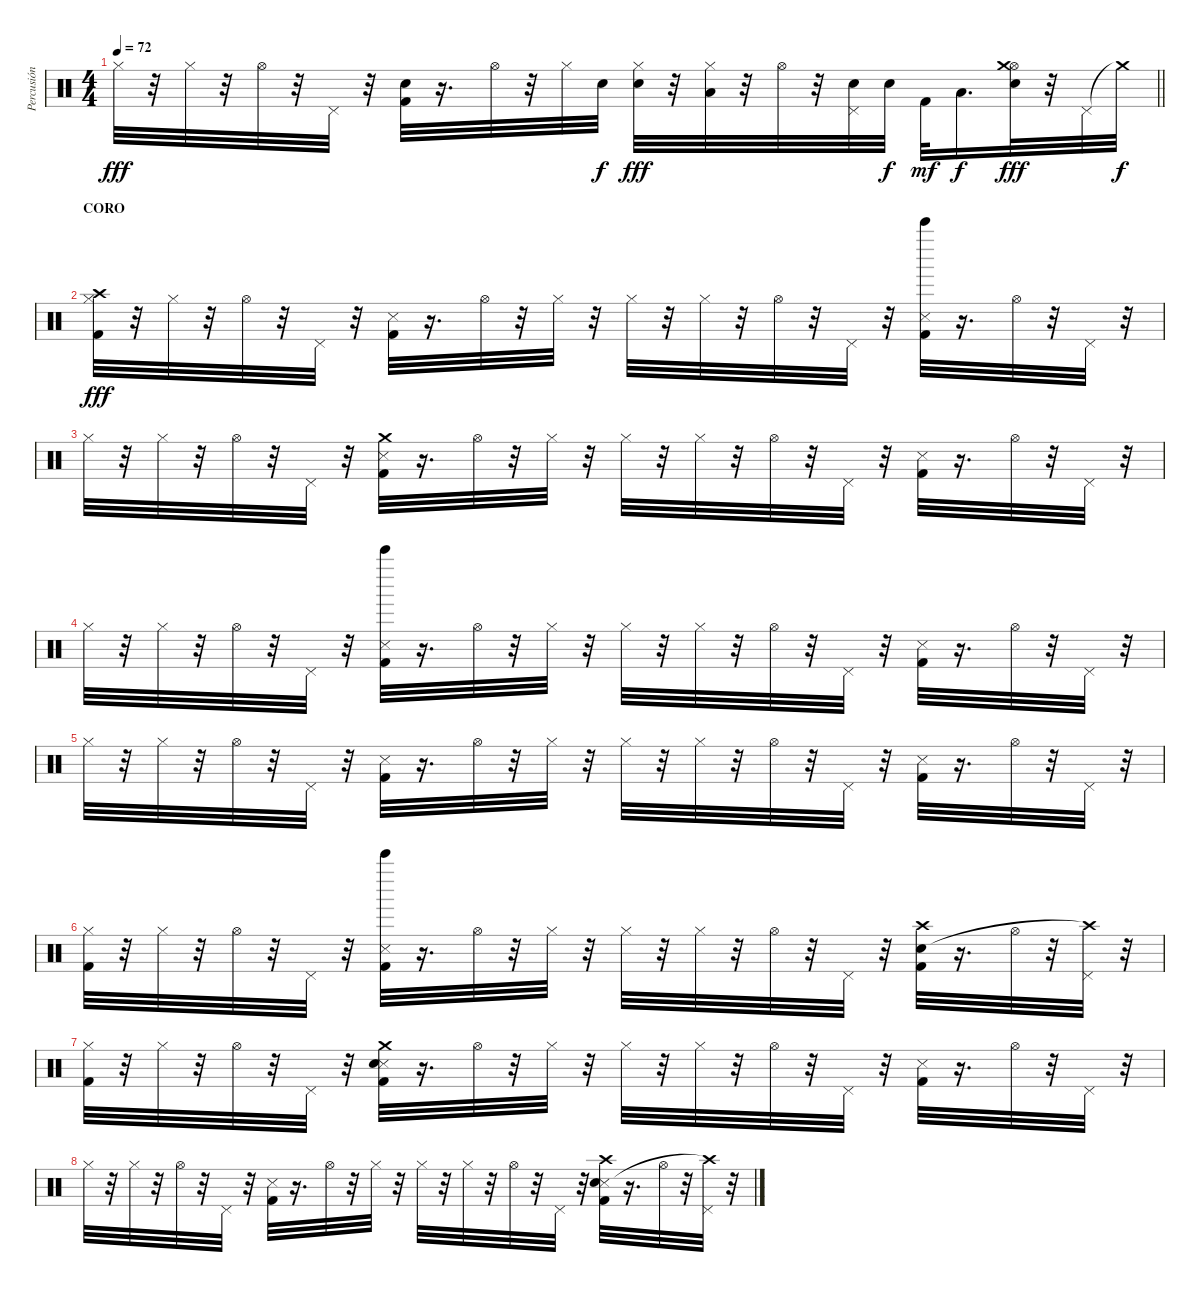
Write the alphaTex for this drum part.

\track ("Percusión" "Percusión") {instrument percussion}
\staff {score}
\articulation defaults
\ts (4 4)
\tempo 72
\clef neutral
\barLineRight lightlight
\ks c "Hi-Hat (closed)".32{dy fff}
r.32 "Hi-Hat (closed)".32 r.32 "Hi-Hat (open)".32 r.32 "Pedal Hi-Hat (hit)".32 r.32 ("Kick (hit) 2" "Snare (hit) 2").32 r.16{d} "Hi-Hat (open)".32 r.32 "Hi-Hat (closed)".32 "Snare (hit) 2".32{dy f} ("Hi-Hat (closed)" "Snare (hit) 2").32{dy fff} r.32 ("Hi-Hat (closed)" "Low Floor Tom (hit)").32 r.32 "Hi-Hat (open)".32 r.32 ("Pedal Hi-Hat (hit)" "Snare (hit) 2").32 "Snare (hit) 2".32{dy f} "Kick (hit) 2".32{dy mf} "Low Floor Tom (hit)".16{d dy f} ("Hi-Hat (open)" "Crash medium (hit)" "Snare (hit) 2").32{dy fff} r.32 "Pedal Hi-Hat (hit)".32 "Crash medium (hit)"{t}.32{dy f} |
\section ("" "CORO")
("Hi-Hat (closed)" "Kick (hit) 2" "Crash high (hit)").32{dy fff} r.32 "Hi-Hat (closed)".32 r.32 "Hi-Hat (open)".32 r.32 "Pedal Hi-Hat (hit)".32 r.32 ("Kick (hit) 2" "Snare (side stick) 3").32 r.16{d} "Hi-Hat (open)".32 r.32 "Hi-Hat (closed)".32 r.32 "Hi-Hat (closed)".32 r.32 "Hi-Hat (closed)".32 r.32 "Hi-Hat (open)".32 r.32 "Pedal Hi-Hat (hit)".32 r.32 ("Kick (hit) 2" "Snare (side stick) 3" "Bell Tree (hit)").32 r.16{d} "Hi-Hat (open)".32 r.32 "Pedal Hi-Hat (hit)".32 r.32 |
"Hi-Hat (closed)".32 r.32 "Hi-Hat (closed)".32 r.32 "Hi-Hat (open)".32 r.32 "Pedal Hi-Hat (hit)".32 r.32 ("Kick (hit) 2" "Snare (side stick) 3" "Crash medium (hit)").32 r.16{d} "Hi-Hat (open)".32 r.32 "Hi-Hat (closed)".32 r.32 "Hi-Hat (closed)".32 r.32 "Hi-Hat (closed)".32 r.32 "Hi-Hat (open)".32 r.32 "Pedal Hi-Hat (hit)".32 r.32 ("Kick (hit) 2" "Snare (side stick) 3").32 r.16{d} "Hi-Hat (open)".32 r.32 "Pedal Hi-Hat (hit)".32 r.32 |
"Hi-Hat (closed)".32 r.32 "Hi-Hat (closed)".32 r.32 "Hi-Hat (open)".32 r.32 "Pedal Hi-Hat (hit)".32 r.32 ("Kick (hit) 2" "Snare (side stick) 3" "Bell Tree (hit)").32 r.16{d} "Hi-Hat (open)".32 r.32 "Hi-Hat (closed)".32 r.32 "Hi-Hat (closed)".32 r.32 "Hi-Hat (closed)".32 r.32 "Hi-Hat (open)".32 r.32 "Pedal Hi-Hat (hit)".32 r.32 ("Kick (hit) 2" "Snare (side stick) 3").32 r.16{d} "Hi-Hat (open)".32 r.32 "Pedal Hi-Hat (hit)".32 r.32 |
"Hi-Hat (closed)".32 r.32 "Hi-Hat (closed)".32 r.32 "Hi-Hat (open)".32 r.32 "Pedal Hi-Hat (hit)".32 r.32 ("Kick (hit) 2" "Snare (side stick) 3").32 r.16{d} "Hi-Hat (open)".32 r.32 "Hi-Hat (closed)".32 r.32 "Hi-Hat (closed)".32 r.32 "Hi-Hat (closed)".32 r.32 "Hi-Hat (open)".32 r.32 "Pedal Hi-Hat (hit)".32 r.32 ("Kick (hit) 2" "Snare (side stick) 3").32 r.16{d} "Hi-Hat (open)".32 r.32 "Pedal Hi-Hat (hit)".32 r.32 |
("Hi-Hat (closed)" "Kick (hit) 2").32 r.32 "Hi-Hat (closed)".32 r.32 "Hi-Hat (open)".32 r.32 "Pedal Hi-Hat (hit)".32 r.32 ("Kick (hit) 2" "Snare (side stick) 3" "Bell Tree (hit)").32 r.16{d} "Hi-Hat (open)".32 r.32 "Hi-Hat (closed)".32 r.32 "Hi-Hat (closed)".32 r.32 "Hi-Hat (closed)".32 r.32 "Hi-Hat (open)".32 r.32 "Pedal Hi-Hat (hit)".32 r.32 ("Kick (hit) 2" "Snare (hit) 2" "Crash high (hit)").32 r.16{d} "Hi-Hat (open)".32 r.32 ("Pedal Hi-Hat (hit)" "Crash high (hit)"{t}).32 r.32 |
("Hi-Hat (closed)" "Kick (hit) 2").32 r.32 "Hi-Hat (closed)".32 r.32 "Hi-Hat (open)".32 r.32 "Pedal Hi-Hat (hit)".32 r.32 ("Kick (hit) 2" "Snare (side stick) 3" "Crash medium (hit)" "Snare (hit) 2").32 r.16{d} "Hi-Hat (open)".32 r.32 "Hi-Hat (closed)".32 r.32 "Hi-Hat (closed)".32 r.32 "Hi-Hat (closed)".32 r.32 "Hi-Hat (open)".32 r.32 "Pedal Hi-Hat (hit)".32 r.32 ("Kick (hit) 2" "Snare (side stick) 3").32 r.16{d} "Hi-Hat (open)".32 r.32 "Pedal Hi-Hat (hit)".32 r.32 |
"Hi-Hat (closed)".32 r.32 "Hi-Hat (closed)".32 r.32 "Hi-Hat (open)".32 r.32 "Pedal Hi-Hat (hit)".32 r.32 ("Kick (hit) 2" "Snare (side stick) 3").32 r.16{d} "Hi-Hat (open)".32 r.32 "Hi-Hat (closed)".32 r.32 "Hi-Hat (closed)".32 r.32 "Hi-Hat (closed)".32 r.32 "Hi-Hat (open)".32 r.32 "Pedal Hi-Hat (hit)".32 r.32 ("Kick (hit) 2" "Snare (side stick) 3" "Snare (hit) 2" "Crash high (hit)").32 r.16{d} "Hi-Hat (open)".32 r.32 ("Pedal Hi-Hat (hit)" "Crash high (hit)"{t}).32 r.32
